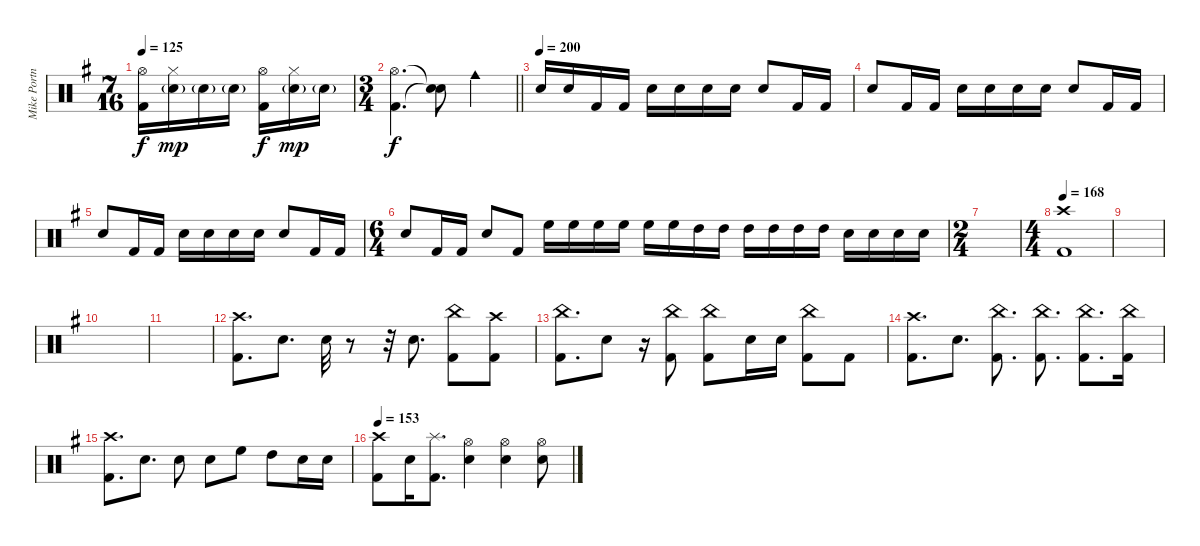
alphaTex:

\track ("Mike Portnoy - Drums" "Mike Portn") {instrument percussion}
\staff {score}
\articulation defaults
\ts (7 16)
\tempo 125
\clef neutral
\ks g
("Hi-Hat (open)" "Kick (hit) 2").16{dy f} ("Hi-Hat (closed)" "Snare (hit) 2"{g}).16{dy mp} "Snare (hit) 2"{g}.16 "Snare (hit) 2"{g}.16 ("Hi-Hat (open)" "Kick (hit) 2").16{dy f} ("Hi-Hat (closed)" "Snare (hit) 2"{g}).16{dy mp} "Snare (hit) 2"{g}.16 |
\ts (3 4)
\barLineRight lightlight
("Hi-Hat (open)" "Kick (hit) 2").4{d dy f} ("Snare (hit)"{t} "Snare (hit)"{t}).8 "Cowbell medium (hit)".4 |
\tempo (200)
"Electric Snare (hit)".16 "Electric Snare (hit)".16 "Kick (hit) 2".16 "Kick (hit) 2".16 "Electric Snare (hit)".16 "Electric Snare (hit)".16 "Electric Snare (hit)".16 "Electric Snare (hit)".16 "Electric Snare (hit)".8 "Kick (hit) 2".16 "Kick (hit) 2".16 |
"Electric Snare (hit)".8 "Kick (hit) 2".16 "Kick (hit) 2".16 "Electric Snare (hit)".16 "Electric Snare (hit)".16 "Electric Snare (hit)".16 "Electric Snare (hit)".16 "Electric Snare (hit)".8 "Kick (hit) 2".16 "Kick (hit) 2".16 |
"Electric Snare (hit)".8 "Kick (hit) 2".16 "Kick (hit) 2".16 "Electric Snare (hit)".16 "Electric Snare (hit)".16 "Electric Snare (hit)".16 "Electric Snare (hit)".16 "Electric Snare (hit)".8 "Kick (hit) 2".16 "Kick (hit) 2".16 |
\ts (6 4)
"Electric Snare (hit)".8 "Kick (hit) 2".16 "Kick (hit) 2".16 "Electric Snare (hit)".8 "Kick (hit) 2".8 "High Floor Tom (hit)".16 "High Floor Tom (hit)".16 "High Floor Tom (hit)".16 "High Floor Tom (hit)".16 "High Floor Tom (hit)".16 "High Floor Tom (hit)".16 "High Tom (hit)".16 "High Tom (hit)".16 "High Tom (hit)".16 "High Tom (hit)".16 "High Tom (hit)".16 "High Tom (hit)".16 "Electric Snare (hit)".16 "Electric Snare (hit)".16 "Electric Snare (hit)".16 "Electric Snare (hit)".16 |
\ts (2 4)
|
\ts (4 4)
\tempo 168
("Crash high (hit)" "Kick (hit) 2").1 |
|
|
|
("Kick (hit) 2" "Crash high (hit)").8{d} "Electric Snare (hit)".8{d} "Electric Snare (hit)".32 r.8 r.32 "Electric Snare (hit)".8{d} ("Kick (hit) 2" "China (hit)").8 ("Kick (hit) 2" "Crash high (hit)").8 |
("China (hit)" "Kick (hit) 2").8{d} "Electric Snare (hit)".8 r.16 ("Kick (hit) 2" "China (hit)").8 ("Kick (hit) 2" "China (hit)").8 "Electric Snare (hit)".16 "Electric Snare (hit)".16 ("Kick (hit) 2" "China (hit)").8 "Kick (hit) 2".8 |
("Crash high (hit)" "Kick (hit) 2").8{d} "Electric Snare (hit)".8{d} ("Kick (hit) 2" "China (hit)").8{d} ("Kick (hit) 2" "China (hit)").8{d} ("China (hit)" "Kick (hit) 2").8{d} ("Kick (hit) 2" "China (hit)").16 |
("Kick (hit) 2" "Crash high (hit)").8{d} "Electric Snare (hit)".8{d} "Electric Snare (hit)".8 "Electric Snare (hit)".8 "High Floor Tom (hit)".8 "High Tom (hit)".8 "Electric Snare (hit)".16 "Electric Snare (hit)".16 |
\tempo 153
("Crash high (hit)" "Kick (hit) 2").8 "Electric Snare (hit)".16 ("Splash (hit)" "Kick (hit) 2").8{d} ("Hi-Hat (open)" "Electric Snare (hit)").4 ("Hi-Hat (open)" "Electric Snare (hit)").4 ("Hi-Hat (open)" "Electric Snare (hit)").8
